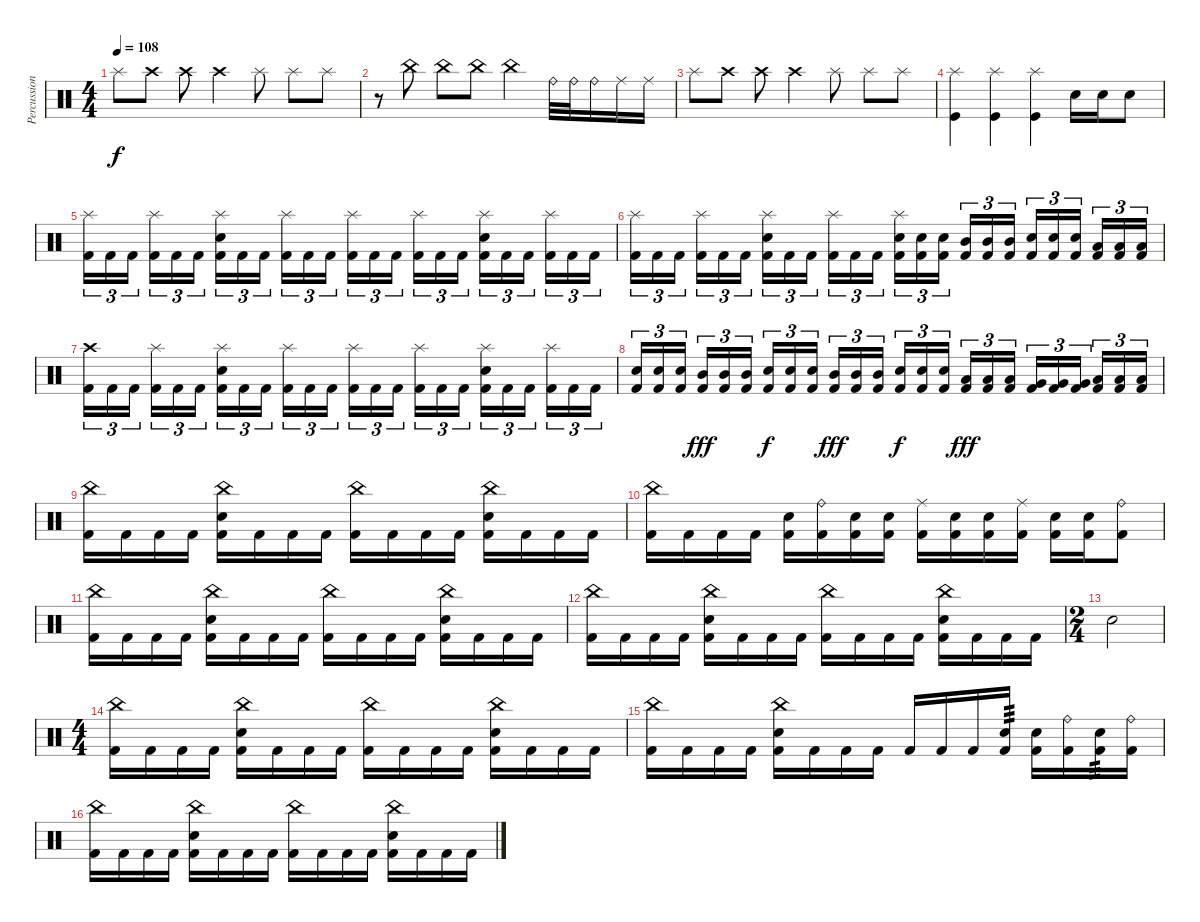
\track ("Percussion" "Percussion") {instrument percussion}
\staff {score}
\articulation defaults
\ts (4 4)
\tempo 108
\clef neutral
\ks c "Splash (hit)".8{dy f} "Crash high (hit)".8 "Crash high (hit)".8 "Crash high (hit)".4 "Splash (hit)".8 "Splash (hit)".8 "Splash (hit)".8
|
r.8 "China (hit)".8 "China (hit)".8 "China (hit)".8 "China (hit)".4 "Ride (bell)".32 "Ride (bell)".32 "Ride (bell)".16 "Ride (middle)".16 "Ride (middle)".16 |
"Splash (hit)".8 "Crash high (hit)".8 "Crash high (hit)".8 "Crash high (hit)".4 "Splash (hit)".8 "Splash (hit)".8 "Splash (hit)".8 |
("Splash (hit)" "Kick (hit)").4 ("Splash (hit)" "Kick (hit)").4 ("Splash (hit)" "Kick (hit)").4 "Electric Snare (hit)".16 "Electric Snare (hit)".16 "Electric Snare (hit)".8 |
("Splash (hit)" "Kick (hit) 2").16{tu (3 2)} "Kick (hit) 2".16{tu (3 2)} "Kick (hit) 2".16{tu (3 2)} ("Splash (hit)" "Kick (hit) 2").16{tu (3 2)} "Kick (hit) 2".16{tu (3 2)} "Kick (hit) 2".16{tu (3 2)} ("Splash (hit)" "Electric Snare (hit)" "Kick (hit) 2").16{tu (3 2)} "Kick (hit) 2".16{tu (3 2)} "Kick (hit) 2".16{tu (3 2)} ("Splash (hit)" "Kick (hit) 2").16{tu (3 2)} "Kick (hit) 2".16{tu (3 2)} "Kick (hit) 2".16{tu (3 2)} ("Splash (hit)" "Kick (hit) 2").16{tu (3 2)} "Kick (hit) 2".16{tu (3 2)} "Kick (hit) 2".16{tu (3 2)} ("Splash (hit)" "Kick (hit) 2").16{tu (3 2)} "Kick (hit) 2".16{tu (3 2)} "Kick (hit) 2".16{tu (3 2)} ("Splash (hit)" "Electric Snare (hit)" "Kick (hit) 2").16{tu (3 2)} "Kick (hit) 2".16{tu (3 2)} "Kick (hit) 2".16{tu (3 2)} ("Splash (hit)" "Kick (hit) 2").16{tu (3 2)} "Kick (hit) 2".16{tu (3 2)} "Kick (hit) 2".16{tu (3 2)} |
("Splash (hit)" "Kick (hit) 2").16{tu (3 2)} "Kick (hit) 2".16{tu (3 2)} "Kick (hit) 2".16{tu (3 2)} ("Splash (hit)" "Kick (hit) 2").16{tu (3 2)} "Kick (hit) 2".16{tu (3 2)} "Kick (hit) 2".16{tu (3 2)} ("Splash (hit)" "Electric Snare (hit)" "Kick (hit) 2").16{tu (3 2)} "Kick (hit) 2".16{tu (3 2)} "Kick (hit) 2".16{tu (3 2)} ("Splash (hit)" "Kick (hit) 2").16{tu (3 2)} "Kick (hit) 2".16{tu (3 2)} "Kick (hit) 2".16{tu (3 2)} ("Splash (hit)" "Electric Snare (hit)" "Kick (hit) 2").16{tu (3 2)} ("Electric Snare (hit)" "Kick (hit) 2").16{tu (3 2)} ("Electric Snare (hit)" "Kick (hit) 2").16{tu (3 2)} ("Mid Tom (hit)" "Kick (hit) 2").16{tu (3 2)} ("Mid Tom (hit)" "Kick (hit) 2").16{tu (3 2)} ("Mid Tom (hit)" "Kick (hit) 2").16{tu (3 2)} ("Electric Snare (hit)" "Kick (hit) 2").16{tu (3 2)} ("Electric Snare (hit)" "Kick (hit) 2").16{tu (3 2)} ("Electric Snare (hit)" "Kick (hit) 2").16{tu (3 2)} ("Low Tom (hit)" "Kick (hit) 2").16{tu (3 2)} ("Low Tom (hit)" "Kick (hit) 2").16{tu (3 2)} ("Low Tom (hit)" "Kick (hit) 2").16{tu (3 2)} |
("Crash high (hit)" "Kick (hit) 2").16{tu (3 2)} "Kick (hit) 2".16{tu (3 2)} "Kick (hit) 2".16{tu (3 2)} ("Splash (hit)" "Kick (hit) 2").16{tu (3 2)} "Kick (hit) 2".16{tu (3 2)} "Kick (hit) 2".16{tu (3 2)} ("Splash (hit)" "Electric Snare (hit)" "Kick (hit) 2").16{tu (3 2)} "Kick (hit) 2".16{tu (3 2)} "Kick (hit) 2".16{tu (3 2)} ("Splash (hit)" "Kick (hit) 2").16{tu (3 2)} "Kick (hit) 2".16{tu (3 2)} "Kick (hit) 2".16{tu (3 2)} ("Splash (hit)" "Kick (hit) 2").16{tu (3 2)} "Kick (hit) 2".16{tu (3 2)} "Kick (hit) 2".16{tu (3 2)} ("Splash (hit)" "Kick (hit) 2").16{tu (3 2)} "Kick (hit) 2".16{tu (3 2)} "Kick (hit) 2".16{tu (3 2)} ("Splash (hit)" "Electric Snare (hit)" "Kick (hit) 2").16{tu (3 2)} "Kick (hit) 2".16{tu (3 2)} "Kick (hit) 2".16{tu (3 2)} ("Splash (hit)" "Kick (hit) 2").16{tu (3 2)} "Kick (hit) 2".16{tu (3 2)} "Kick (hit) 2".16{tu (3 2)} |
("Electric Snare (hit)" "Kick (hit) 2").16{tu (3 2)} ("Electric Snare (hit)" "Kick (hit) 2").16{tu (3 2)} ("Electric Snare (hit)" "Kick (hit) 2").16{tu (3 2)} ("Mid Tom (hit)" "Kick (hit) 2").16{tu (3 2) dy fff} ("Mid Tom (hit)" "Kick (hit) 2").16{tu (3 2)} ("Mid Tom (hit)" "Kick (hit) 2").16{tu (3 2)} ("Electric Snare (hit)" "Kick (hit) 2").16{tu (3 2) dy f} ("Electric Snare (hit)" "Kick (hit) 2").16{tu (3 2)} ("Electric Snare (hit)" "Kick (hit) 2").16{tu (3 2)} ("Mid Tom (hit)" "Kick (hit) 2").16{tu (3 2) dy fff} ("Mid Tom (hit)" "Kick (hit) 2").16{tu (3 2)} ("Mid Tom (hit)" "Kick (hit) 2").16{tu (3 2)} ("Electric Snare (hit)" "Kick (hit) 2").16{tu (3 2) dy f} ("Electric Snare (hit)" "Kick (hit) 2").16{tu (3 2)} ("Electric Snare (hit)" "Kick (hit) 2").16{tu (3 2)} ("Low Tom (hit)" "Kick (hit) 2").16{tu (3 2) dy fff} ("Low Tom (hit)" "Kick (hit) 2").16{tu (3 2)} ("Low Tom (hit)" "Kick (hit) 2").16{tu (3 2)} ("Very Low Tom (hit)" "Kick (hit) 2").16{tu (3 2)} ("Very Low Tom (hit)" "Kick (hit) 2").16{tu (3 2)} ("Very Low Tom (hit)" "Kick (hit) 2").16{tu (3 2)} ("Low Floor Tom (hit)" "Kick (hit) 2").16{tu (3 2)} ("Low Floor Tom (hit)" "Kick (hit) 2").16{tu (3 2)} ("Low Floor Tom (hit)" "Kick (hit) 2").16{tu (3 2)} |
("China (hit)" "Kick (hit) 2").16 "Kick (hit) 2".16 "Kick (hit) 2".16 "Kick (hit) 2".16 ("China (hit)" "Electric Snare (hit)" "Kick (hit) 2").16 "Kick (hit) 2".16 "Kick (hit) 2".16 "Kick (hit) 2".16 ("China (hit)" "Kick (hit) 2").16 "Kick (hit) 2".16 "Kick (hit) 2".16 "Kick (hit) 2".16 ("China (hit)" "Electric Snare (hit)" "Kick (hit) 2").16 "Kick (hit) 2".16 "Kick (hit) 2".16 "Kick (hit) 2".16 |
("China (hit)" "Kick (hit) 2").16 "Kick (hit) 2".16 "Kick (hit) 2".16 "Kick (hit) 2".16 ("Electric Snare (hit)" "Kick (hit) 2").16 ("Ride (bell)" "Kick (hit) 2").16 ("Electric Snare (hit)" "Kick (hit) 2").16 ("Electric Snare (hit)" "Kick (hit) 2").16 ("Ride (middle)" "Kick (hit) 2").16 ("Electric Snare (hit)" "Kick (hit) 2").16 ("Electric Snare (hit)" "Kick (hit) 2").16 ("Ride (middle)" "Kick (hit) 2").16 ("Electric Snare (hit)" "Kick (hit) 2").16 ("Electric Snare (hit)" "Kick (hit) 2").16 ("Ride (bell)" "Kick (hit) 2").8 |
("China (hit)" "Kick (hit) 2").16 "Kick (hit) 2".16 "Kick (hit) 2".16 "Kick (hit) 2".16 ("China (hit)" "Electric Snare (hit)" "Kick (hit) 2").16 "Kick (hit) 2".16 "Kick (hit) 2".16 "Kick (hit) 2".16 ("China (hit)" "Kick (hit) 2").16 "Kick (hit) 2".16 "Kick (hit) 2".16 "Kick (hit) 2".16 ("China (hit)" "Electric Snare (hit)" "Kick (hit) 2").16 "Kick (hit) 2".16 "Kick (hit) 2".16 "Kick (hit) 2".16 |
("China (hit)" "Kick (hit) 2").16 "Kick (hit) 2".16 "Kick (hit) 2".16 "Kick (hit) 2".16 ("China (hit)" "Electric Snare (hit)" "Kick (hit) 2").16 "Kick (hit) 2".16 "Kick (hit) 2".16 "Kick (hit) 2".16 ("China (hit)" "Kick (hit) 2").16 "Kick (hit) 2".16 "Kick (hit) 2".16 "Kick (hit) 2".16 ("China (hit)" "Electric Snare (hit)" "Kick (hit) 2").16 "Kick (hit) 2".16 "Kick (hit) 2".16 "Kick (hit) 2".16 |
\ts (2 4)
"Electric Snare (hit)".2 |
\ts (4 4)
("China (hit)" "Kick (hit) 2").16 "Kick (hit) 2".16 "Kick (hit) 2".16 "Kick (hit) 2".16 ("China (hit)" "Electric Snare (hit)" "Kick (hit) 2").16 "Kick (hit) 2".16 "Kick (hit) 2".16 "Kick (hit) 2".16 ("China (hit)" "Kick (hit) 2").16 "Kick (hit) 2".16 "Kick (hit) 2".16 "Kick (hit) 2".16 ("China (hit)" "Electric Snare (hit)" "Kick (hit) 2").16 "Kick (hit) 2".16 "Kick (hit) 2".16 "Kick (hit) 2".16 |
("China (hit)" "Kick (hit) 2").16 "Kick (hit) 2".16 "Kick (hit) 2".16 "Kick (hit) 2".16 ("China (hit)" "Electric Snare (hit)" "Kick (hit) 2").16 "Kick (hit) 2".16 "Kick (hit) 2".16 "Kick (hit) 2".16 "Kick (hit) 2".16 "Kick (hit) 2".16 "Kick (hit) 2".16 ("Electric Snare (hit)" "Kick (hit) 2").16{tp 3} ("Electric Snare (hit)" "Kick (hit) 2").16 ("Ride (bell)" "Kick (hit) 2").16 ("Electric Snare (hit)" "Kick (hit) 2").16{tp 3} ("Ride (bell)" "Kick (hit) 2").16 |
("China (hit)" "Kick (hit) 2").16 "Kick (hit) 2".16 "Kick (hit) 2".16 "Kick (hit) 2".16 ("China (hit)" "Electric Snare (hit)" "Kick (hit) 2").16 "Kick (hit) 2".16 "Kick (hit) 2".16 "Kick (hit) 2".16 ("China (hit)" "Kick (hit) 2").16 "Kick (hit) 2".16 "Kick (hit) 2".16 "Kick (hit) 2".16 ("China (hit)" "Electric Snare (hit)" "Kick (hit) 2").16 "Kick (hit) 2".16 "Kick (hit) 2".16 "Kick (hit) 2".16
